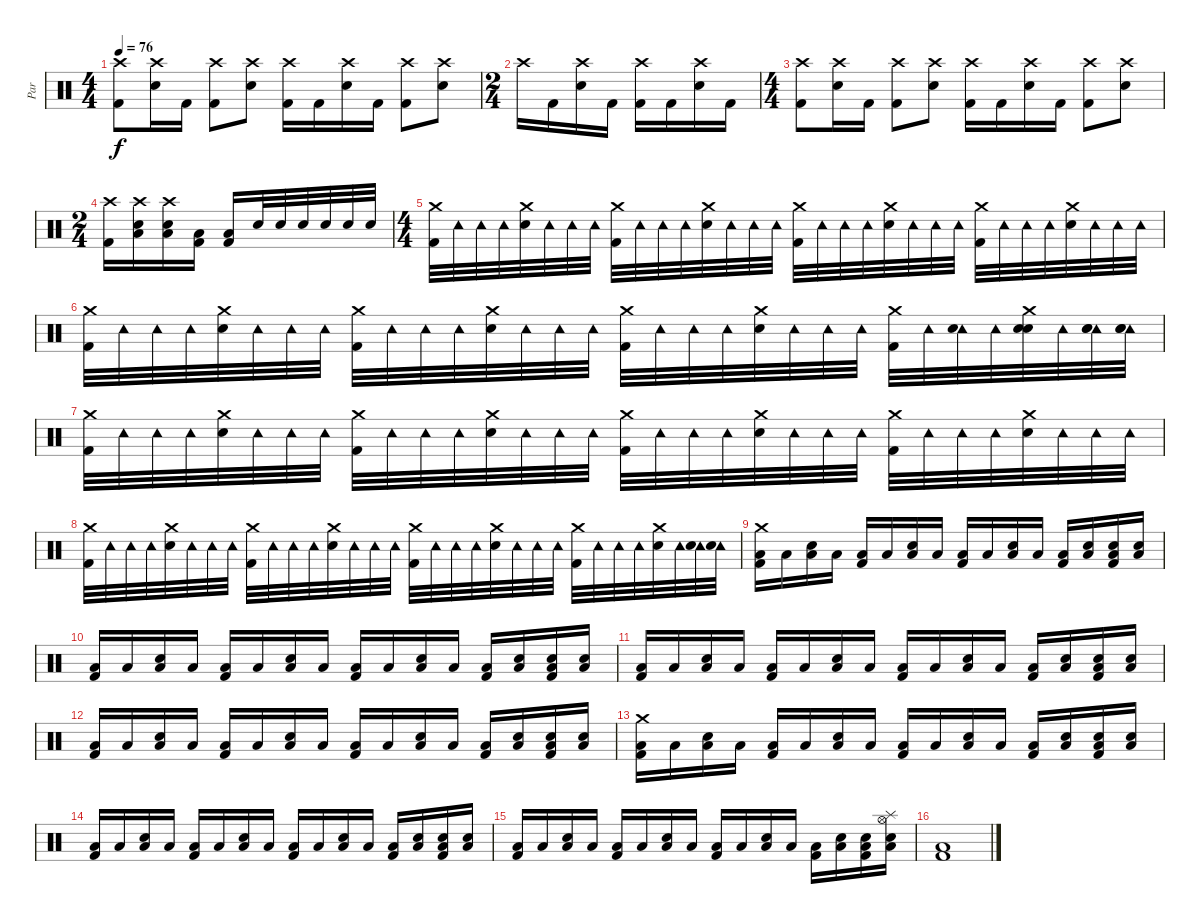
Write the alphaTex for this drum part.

\track ("Par" "Par") {instrument percussion}
\staff {score}
\articulation defaults
\ts (4 4)
\tempo 76
\clef neutral
\ks c
("Crash high (hit)" "Kick (hit) 2").8{dy f} ("Crash high (hit)" "Snare (hit) 2").16 "Kick (hit) 2".16 ("Crash high (hit)" "Kick (hit) 2").8 ("Crash high (hit)" "Snare (hit) 2").8 ("Crash high (hit)" "Kick (hit) 2").16 "Kick (hit) 2".16 ("Crash high (hit)" "Snare (hit) 2").16 "Kick (hit) 2".16 ("Crash high (hit)" "Kick (hit) 2").8 ("Crash high (hit)" "Snare (hit) 2").8 |
\ts (2 4)
"Crash high (hit)".16 "Kick (hit) 2".16 ("Crash high (hit)" "Snare (hit) 2").16 "Kick (hit) 2".16 ("Crash high (hit)" "Kick (hit) 2").16 "Kick (hit) 2".16 ("Crash high (hit)" "Snare (hit) 2").16 "Kick (hit) 2".16 |
\ts (4 4)
("Crash high (hit)" "Kick (hit) 2").8 ("Crash high (hit)" "Snare (hit) 2").16 "Kick (hit) 2".16 ("Crash high (hit)" "Kick (hit) 2").8 ("Crash high (hit)" "Snare (hit) 2").8 ("Crash high (hit)" "Kick (hit) 2").16 "Kick (hit) 2".16 ("Crash high (hit)" "Snare (hit) 2").16 "Kick (hit) 2".16 ("Crash high (hit)" "Kick (hit) 2").8 ("Crash high (hit)" "Snare (hit) 2").8 |
\ts (2 4)
("Crash high (hit)" "Kick (hit) 2").16 ("Crash high (hit)" "Low Floor Tom (hit)" "Snare (hit) 2").16 ("Crash high (hit)" "Low Floor Tom (hit)" "Snare (hit) 2").16 ("Low Floor Tom (hit)" "Kick (hit) 2").16 ("Low Floor Tom (hit)" "Kick (hit) 2").16 "Snare (hit) 2".32 "Snare (hit) 2".32 "Snare (hit) 2".32 "Snare (hit) 2".32 "Snare (hit) 2".32 "Snare (hit) 2".32 |
\ts (4 4)
("Crash medium (hit)" "Kick (hit) 2").32 "Tambourine (hit)".32 "Tambourine (hit)".32 "Tambourine (hit)".32 ("Crash medium (hit)" "Snare (hit) 2").32 "Tambourine (hit)".32 "Tambourine (hit)".32 "Tambourine (hit)".32 ("Crash medium (hit)" "Kick (hit) 2").32 "Tambourine (hit)".32 "Tambourine (hit)".32 "Tambourine (hit)".32 ("Crash medium (hit)" "Snare (hit) 2").32 "Tambourine (hit)".32 "Tambourine (hit)".32 "Tambourine (hit)".32 ("Crash medium (hit)" "Kick (hit) 2").32 "Tambourine (hit)".32 "Tambourine (hit)".32 "Tambourine (hit)".32 ("Crash medium (hit)" "Snare (hit) 2").32 "Tambourine (hit)".32 "Tambourine (hit)".32 "Tambourine (hit)".32 ("Crash medium (hit)" "Kick (hit) 2").32 "Tambourine (hit)".32 "Tambourine (hit)".32 "Tambourine (hit)".32 ("Crash medium (hit)" "Snare (hit) 2").32 "Tambourine (hit)".32 "Tambourine (hit)".32 "Tambourine (hit)".32 |
("Crash medium (hit)" "Kick (hit) 2").32 "Tambourine (hit)".32 "Tambourine (hit)".32 "Tambourine (hit)".32 ("Crash medium (hit)" "Snare (hit) 2").32 "Tambourine (hit)".32 "Tambourine (hit)".32 "Tambourine (hit)".32 ("Crash medium (hit)" "Kick (hit) 2").32 "Tambourine (hit)".32 "Tambourine (hit)".32 "Tambourine (hit)".32 ("Crash medium (hit)" "Snare (hit) 2").32 "Tambourine (hit)".32 "Tambourine (hit)".32 "Tambourine (hit)".32 ("Crash medium (hit)" "Kick (hit) 2").32 "Tambourine (hit)".32 "Tambourine (hit)".32 "Tambourine (hit)".32 ("Crash medium (hit)" "Snare (hit) 2").32 "Tambourine (hit)".32 "Tambourine (hit)".32 "Tambourine (hit)".32 ("Crash medium (hit)" "Kick (hit) 2").32 "Tambourine (hit)".32 ("Tambourine (hit)" "Hand Clap (hit)").32 "Tambourine (hit)".32 ("Crash medium (hit)" "Hand Clap (hit)" "Snare (hit) 2").32 "Tambourine (hit)".32 ("Tambourine (hit)" "Hand Clap (hit)" "Snare (hit) 2").32 ("Tambourine (hit)" "Hand Clap (hit)" "Snare (hit) 2").32 |
("Crash medium (hit)" "Kick (hit) 2").32 "Tambourine (hit)".32 "Tambourine (hit)".32 "Tambourine (hit)".32 ("Crash medium (hit)" "Snare (hit) 2").32 "Tambourine (hit)".32 "Tambourine (hit)".32 "Tambourine (hit)".32 ("Crash medium (hit)" "Kick (hit) 2").32 "Tambourine (hit)".32 "Tambourine (hit)".32 "Tambourine (hit)".32 ("Crash medium (hit)" "Snare (hit) 2").32 "Tambourine (hit)".32 "Tambourine (hit)".32 "Tambourine (hit)".32 ("Crash medium (hit)" "Kick (hit) 2").32 "Tambourine (hit)".32 "Tambourine (hit)".32 "Tambourine (hit)".32 ("Crash medium (hit)" "Snare (hit) 2").32 "Tambourine (hit)".32 "Tambourine (hit)".32 "Tambourine (hit)".32 ("Crash medium (hit)" "Kick (hit) 2").32 "Tambourine (hit)".32 "Tambourine (hit)".32 "Tambourine (hit)".32 ("Crash medium (hit)" "Snare (hit) 2").32 "Tambourine (hit)".32 "Tambourine (hit)".32 "Tambourine (hit)".32 |
("Crash medium (hit)" "Kick (hit) 2").32 "Tambourine (hit)".32 "Tambourine (hit)".32 "Tambourine (hit)".32 ("Crash medium (hit)" "Snare (hit) 2").32 "Tambourine (hit)".32 "Tambourine (hit)".32 "Tambourine (hit)".32 ("Crash medium (hit)" "Kick (hit) 2").32 "Tambourine (hit)".32 "Tambourine (hit)".32 "Tambourine (hit)".32 ("Crash medium (hit)" "Snare (hit) 2").32 "Tambourine (hit)".32 "Tambourine (hit)".32 "Tambourine (hit)".32 ("Crash medium (hit)" "Kick (hit) 2").32 "Tambourine (hit)".32 "Tambourine (hit)".32 "Tambourine (hit)".32 ("Crash medium (hit)" "Snare (hit) 2").32 "Tambourine (hit)".32 "Tambourine (hit)".32 "Tambourine (hit)".32 ("Crash medium (hit)" "Kick (hit) 2").32 "Tambourine (hit)".32 "Tambourine (hit)".32 "Tambourine (hit)".32 ("Crash medium (hit)" "Snare (hit) 2").32 "Tambourine (hit)".32 ("Tambourine (hit)" "Hand Clap (hit)").32 ("Tambourine (hit)" "Hand Clap (hit)").32 |
("Crash medium (hit)" "Low Floor Tom (hit)" "Kick (hit) 2").16 "Low Floor Tom (hit)".16 ("Low Floor Tom (hit)" "Snare (hit) 2").16 "Low Floor Tom (hit)".16 ("Low Floor Tom (hit)" "Kick (hit) 2").16 "Low Floor Tom (hit)".16 ("Low Floor Tom (hit)" "Snare (hit) 2").16 "Low Floor Tom (hit)".16 ("Low Floor Tom (hit)" "Kick (hit) 2").16 "Low Floor Tom (hit)".16 ("Low Floor Tom (hit)" "Snare (hit) 2").16 "Low Floor Tom (hit)".16 ("Low Floor Tom (hit)" "Kick (hit) 2").16 ("Low Floor Tom (hit)" "Snare (hit) 2").16 ("Low Floor Tom (hit)" "Snare (hit) 2" "Kick (hit) 2").16 ("Low Floor Tom (hit)" "Snare (hit) 2").16 |
("Low Floor Tom (hit)" "Kick (hit) 2").16 "Low Floor Tom (hit)".16 ("Low Floor Tom (hit)" "Snare (hit) 2").16 "Low Floor Tom (hit)".16 ("Low Floor Tom (hit)" "Kick (hit) 2").16 "Low Floor Tom (hit)".16 ("Low Floor Tom (hit)" "Snare (hit) 2").16 "Low Floor Tom (hit)".16 ("Low Floor Tom (hit)" "Kick (hit) 2").16 "Low Floor Tom (hit)".16 ("Low Floor Tom (hit)" "Snare (hit) 2").16 "Low Floor Tom (hit)".16 ("Low Floor Tom (hit)" "Kick (hit) 2").16 ("Low Floor Tom (hit)" "Snare (hit) 2").16 ("Low Floor Tom (hit)" "Snare (hit) 2" "Kick (hit) 2").16 ("Low Floor Tom (hit)" "Snare (hit) 2").16 |
("Low Floor Tom (hit)" "Kick (hit) 2").16 "Low Floor Tom (hit)".16 ("Low Floor Tom (hit)" "Snare (hit) 2").16 "Low Floor Tom (hit)".16 ("Low Floor Tom (hit)" "Kick (hit) 2").16 "Low Floor Tom (hit)".16 ("Low Floor Tom (hit)" "Snare (hit) 2").16 "Low Floor Tom (hit)".16 ("Low Floor Tom (hit)" "Kick (hit) 2").16 "Low Floor Tom (hit)".16 ("Low Floor Tom (hit)" "Snare (hit) 2").16 "Low Floor Tom (hit)".16 ("Low Floor Tom (hit)" "Kick (hit) 2").16 ("Low Floor Tom (hit)" "Snare (hit) 2").16 ("Low Floor Tom (hit)" "Snare (hit) 2" "Kick (hit) 2").16 ("Low Floor Tom (hit)" "Snare (hit) 2").16 |
("Low Floor Tom (hit)" "Kick (hit) 2").16 "Low Floor Tom (hit)".16 ("Low Floor Tom (hit)" "Snare (hit) 2").16 "Low Floor Tom (hit)".16 ("Low Floor Tom (hit)" "Kick (hit) 2").16 "Low Floor Tom (hit)".16 ("Low Floor Tom (hit)" "Snare (hit) 2").16 "Low Floor Tom (hit)".16 ("Low Floor Tom (hit)" "Kick (hit) 2").16 "Low Floor Tom (hit)".16 ("Low Floor Tom (hit)" "Snare (hit) 2").16 "Low Floor Tom (hit)".16 ("Low Floor Tom (hit)" "Kick (hit) 2").16 ("Low Floor Tom (hit)" "Snare (hit) 2").16 ("Low Floor Tom (hit)" "Snare (hit) 2" "Kick (hit) 2").16 ("Low Floor Tom (hit)" "Snare (hit) 2").16 |
("Crash medium (hit)" "Low Floor Tom (hit)" "Kick (hit) 2").16 "Low Floor Tom (hit)".16 ("Low Floor Tom (hit)" "Snare (hit) 2").16 "Low Floor Tom (hit)".16 ("Low Floor Tom (hit)" "Kick (hit) 2").16 "Low Floor Tom (hit)".16 ("Low Floor Tom (hit)" "Snare (hit) 2").16 "Low Floor Tom (hit)".16 ("Low Floor Tom (hit)" "Kick (hit) 2").16 "Low Floor Tom (hit)".16 ("Low Floor Tom (hit)" "Snare (hit) 2").16 "Low Floor Tom (hit)".16 ("Low Floor Tom (hit)" "Kick (hit) 2").16 ("Low Floor Tom (hit)" "Snare (hit) 2").16 ("Low Floor Tom (hit)" "Snare (hit) 2" "Kick (hit) 2").16 ("Low Floor Tom (hit)" "Snare (hit) 2").16 |
("Low Floor Tom (hit)" "Kick (hit) 2").16 "Low Floor Tom (hit)".16 ("Low Floor Tom (hit)" "Snare (hit) 2").16 "Low Floor Tom (hit)".16 ("Low Floor Tom (hit)" "Kick (hit) 2").16 "Low Floor Tom (hit)".16 ("Low Floor Tom (hit)" "Snare (hit) 2").16 "Low Floor Tom (hit)".16 ("Low Floor Tom (hit)" "Kick (hit) 2").16 "Low Floor Tom (hit)".16 ("Low Floor Tom (hit)" "Snare (hit) 2").16 "Low Floor Tom (hit)".16 ("Low Floor Tom (hit)" "Kick (hit) 2").16 ("Low Floor Tom (hit)" "Snare (hit) 2").16 ("Low Floor Tom (hit)" "Snare (hit) 2" "Kick (hit) 2").16 ("Low Floor Tom (hit)" "Snare (hit) 2").16 |
("Low Floor Tom (hit)" "Kick (hit) 2").16 "Low Floor Tom (hit)".16 ("Low Floor Tom (hit)" "Snare (hit) 2").16 "Low Floor Tom (hit)".16 ("Low Floor Tom (hit)" "Kick (hit) 2").16 "Low Floor Tom (hit)".16 ("Low Floor Tom (hit)" "Snare (hit) 2").16 "Low Floor Tom (hit)".16 ("Low Floor Tom (hit)" "Kick (hit) 2").16 "Low Floor Tom (hit)".16 ("Low Floor Tom (hit)" "Snare (hit) 2").16 "Low Floor Tom (hit)".16 ("Low Floor Tom (hit)" "Kick (hit) 2").16 ("Low Floor Tom (hit)" "Snare (hit) 2").16 ("Low Floor Tom (hit)" "Snare (hit) 2" "Kick (hit) 2").16 ("Splash (hit)" "Hi-Hat (open)" "Low Floor Tom (hit)" "Snare (hit) 2").16 |
("Low Floor Tom (hit)" "Kick (hit) 2").1
